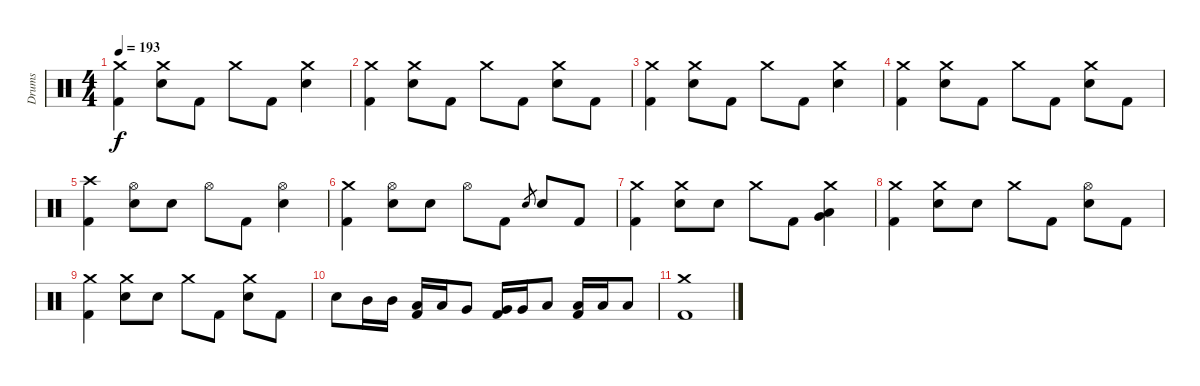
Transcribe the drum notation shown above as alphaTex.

\track ("Drums" "Drums") {instrument percussion}
\staff {score}
\articulation defaults
\ts (4 4)
\tempo 193
\clef neutral
\ks c
("Crash medium (hit)" "Kick (hit) 2").4{dy f} ("Crash medium (hit)" "Electric Snare (hit)").8 "Kick (hit) 2".8 "Crash medium (hit)".8 "Kick (hit) 2".8 ("Crash medium (hit)" "Electric Snare (hit)").4 |
("Crash medium (hit)" "Kick (hit) 2").4 ("Crash medium (hit)" "Electric Snare (hit)").8 "Kick (hit) 2".8 "Crash medium (hit)".8 "Kick (hit) 2".8 ("Crash medium (hit)" "Electric Snare (hit)").8 "Kick (hit) 2".8 |
("Crash medium (hit)" "Kick (hit) 2").4 ("Crash medium (hit)" "Electric Snare (hit)").8 "Kick (hit) 2".8 "Crash medium (hit)".8 "Kick (hit) 2".8 ("Crash medium (hit)" "Electric Snare (hit)").4 |
("Crash medium (hit)" "Kick (hit) 2").4 ("Crash medium (hit)" "Electric Snare (hit)").8 "Kick (hit) 2".8 "Crash medium (hit)".8 "Kick (hit) 2".8 ("Crash medium (hit)" "Electric Snare (hit)").8 "Kick (hit) 2".8 |
("Crash high (hit)" "Kick (hit) 2").4 ("Hi-Hat (open)" "Electric Snare (hit)").8 "Electric Snare (hit)".8 "Hi-Hat (open)".8 "Kick (hit) 2".8 ("Hi-Hat (open)" "Electric Snare (hit)").4 |
("Crash medium (hit)" "Kick (hit) 2").4 ("Hi-Hat (open)" "Electric Snare (hit)").8 "Electric Snare (hit)".8 "Hi-Hat (open)".8 "Kick (hit) 2".8 "Electric Snare (hit)".8{gr} "Electric Snare (hit)".8 "Kick (hit) 2".8 |
("Crash medium (hit)" "Kick (hit) 2").4 ("Crash medium (hit)" "Electric Snare (hit)").8 "Electric Snare (hit)".8 "Crash medium (hit)".8 "Kick (hit) 2".8 ("Crash medium (hit)" "Very Low Tom (hit)" "Low Tom (hit)").4 |
("Crash medium (hit)" "Kick (hit) 2").4 ("Crash medium (hit)" "Electric Snare (hit)").8 "Electric Snare (hit)".8 "Crash medium (hit)".8 "Kick (hit) 2".8 ("Hi-Hat (open)" "Electric Snare (hit)").8 "Kick (hit) 2".8 |
("Crash medium (hit)" "Kick (hit) 2").4 ("Crash medium (hit)" "Electric Snare (hit)").8 "Electric Snare (hit)".8 "Crash medium (hit)".8 "Kick (hit) 2".8 ("Crash medium (hit)" "Electric Snare (hit)").8 "Kick (hit) 2".8 |
"Electric Snare (hit)".8 "Mid Tom (hit)".16 "Mid Tom (hit)".16 ("Low Tom (hit)" "Kick (hit) 2").16 "Low Tom (hit)".16 "Very Low Tom (hit)".8 ("Very Low Tom (hit)" "Kick (hit) 2").16 "Very Low Tom (hit)".16 "Low Floor Tom (hit)".8 ("Low Floor Tom (hit)" "Kick (hit) 2").16 "Low Floor Tom (hit)".16 "Low Floor Tom (hit)".8 |
("Crash medium (hit)" "Kick (hit) 2").1
